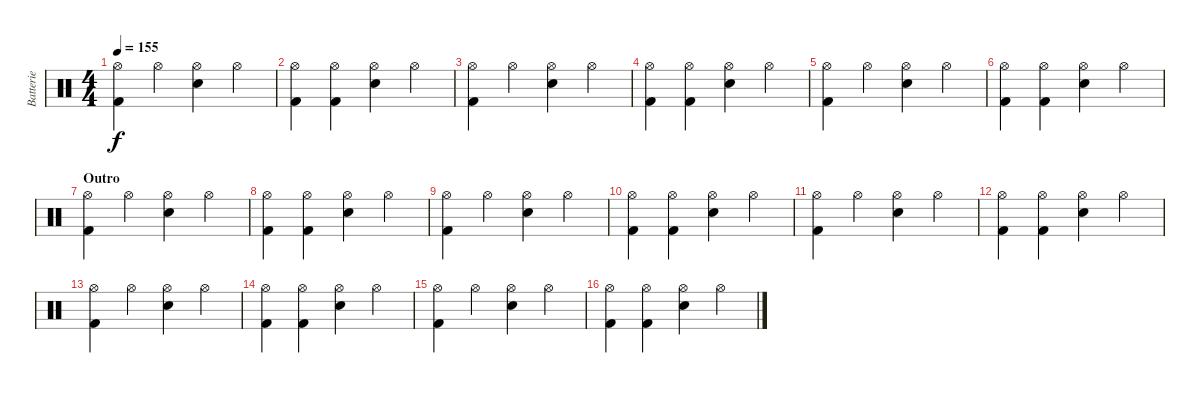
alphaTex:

\track ("Batterie" "Batterie") {instrument percussion}
\staff {score}
\articulation defaults
\ts (4 4)
\tempo 155
\clef neutral
\ks c
("Hi-Hat (open)" "Kick (hit) 2").4{dy f} "Hi-Hat (open)".4 ("Hi-Hat (open)" "Snare (hit) 2").4 "Hi-Hat (open)".4 |
("Hi-Hat (open)" "Kick (hit) 2").4 ("Hi-Hat (open)" "Kick (hit) 2").4 ("Hi-Hat (open)" "Snare (hit) 2").4 "Hi-Hat (open)".4 |
("Hi-Hat (open)" "Kick (hit) 2").4 "Hi-Hat (open)".4 ("Hi-Hat (open)" "Snare (hit) 2").4 "Hi-Hat (open)".4 |
("Hi-Hat (open)" "Kick (hit) 2").4 ("Hi-Hat (open)" "Kick (hit) 2").4 ("Hi-Hat (open)" "Snare (hit) 2").4 "Hi-Hat (open)".4 |
("Hi-Hat (open)" "Kick (hit) 2").4 "Hi-Hat (open)".4 ("Hi-Hat (open)" "Snare (hit) 2").4 "Hi-Hat (open)".4 |
("Hi-Hat (open)" "Kick (hit) 2").4 ("Hi-Hat (open)" "Kick (hit) 2").4 ("Hi-Hat (open)" "Snare (hit) 2").4 "Hi-Hat (open)".4 |
\section ("" "Outro")
("Hi-Hat (open)" "Kick (hit) 2").4 "Hi-Hat (open)".4 ("Hi-Hat (open)" "Snare (hit) 2").4 "Hi-Hat (open)".4 |
("Hi-Hat (open)" "Kick (hit) 2").4 ("Hi-Hat (open)" "Kick (hit) 2").4 ("Hi-Hat (open)" "Snare (hit) 2").4 "Hi-Hat (open)".4 |
("Hi-Hat (open)" "Kick (hit) 2").4 "Hi-Hat (open)".4 ("Hi-Hat (open)" "Snare (hit) 2").4 "Hi-Hat (open)".4 |
("Hi-Hat (open)" "Kick (hit) 2").4 ("Hi-Hat (open)" "Kick (hit) 2").4 ("Hi-Hat (open)" "Snare (hit) 2").4 "Hi-Hat (open)".4 |
("Hi-Hat (open)" "Kick (hit) 2").4 "Hi-Hat (open)".4 ("Hi-Hat (open)" "Snare (hit) 2").4 "Hi-Hat (open)".4 |
("Hi-Hat (open)" "Kick (hit) 2").4 ("Hi-Hat (open)" "Kick (hit) 2").4 ("Hi-Hat (open)" "Snare (hit) 2").4 "Hi-Hat (open)".4 |
("Hi-Hat (open)" "Kick (hit) 2").4 "Hi-Hat (open)".4 ("Hi-Hat (open)" "Snare (hit) 2").4 "Hi-Hat (open)".4 |
("Hi-Hat (open)" "Kick (hit) 2").4 ("Hi-Hat (open)" "Kick (hit) 2").4 ("Hi-Hat (open)" "Snare (hit) 2").4 "Hi-Hat (open)".4 |
("Hi-Hat (open)" "Kick (hit) 2").4 "Hi-Hat (open)".4 ("Hi-Hat (open)" "Snare (hit) 2").4 "Hi-Hat (open)".4 |
("Hi-Hat (open)" "Kick (hit) 2").4 ("Hi-Hat (open)" "Kick (hit) 2").4 ("Hi-Hat (open)" "Snare (hit) 2").4 "Hi-Hat (open)".4
